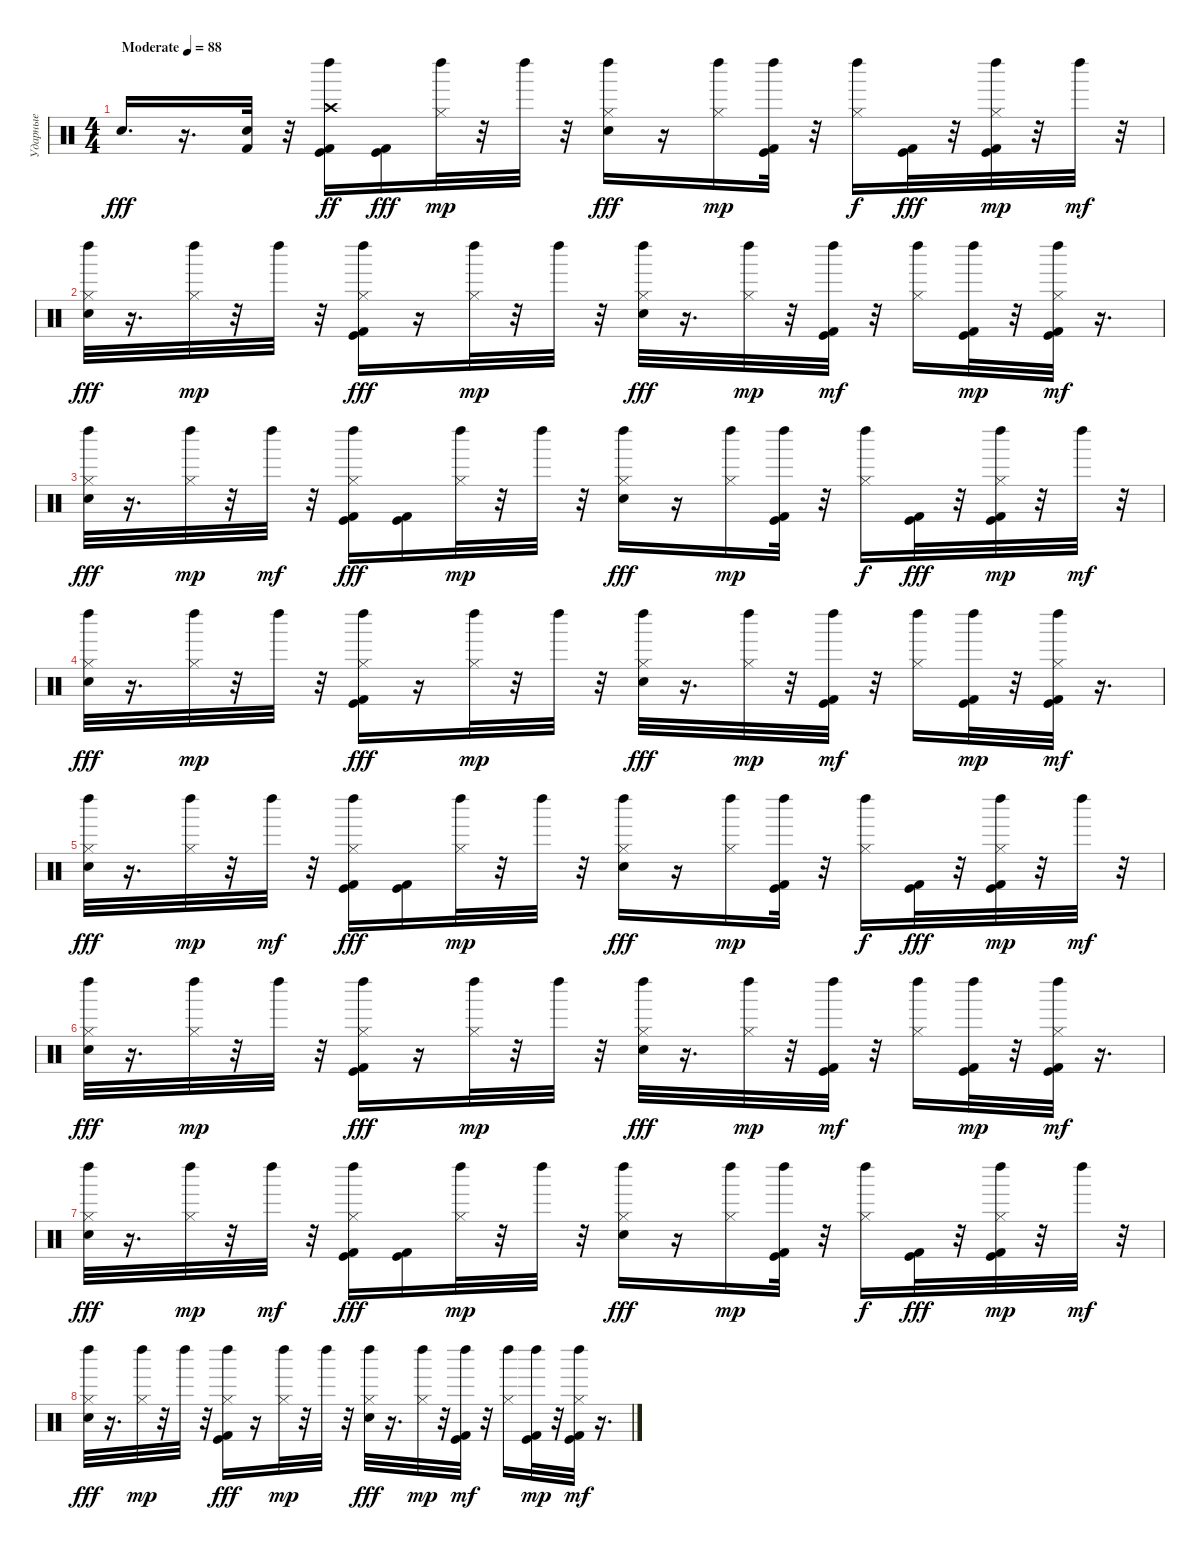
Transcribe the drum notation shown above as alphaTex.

\track ("Ударные" "Ударные") {instrument percussion}
\staff {score}
\articulation defaults
\ts (4 4)
\tempo (88 "Moderate")
\clef neutral
\ks c "Snare (hit) 2".16{d dy fff}
r.16{d} ("Kick (hit) 2" "Snare (hit) 2").32 r.32 ("Kick (hit)" "Kick (hit) 2" "Crash high (hit)" "Left Maraca (hit)").16{dy ff} ("Kick (hit)" "Kick (hit) 2").16{dy fff} ("Hi-Hat (closed)" "Left Maraca (hit)").32{dy mp} r.32 "Left Maraca (hit)".32 r.32 ("Snare (hit) 2" "Hi-Hat (closed)" "Left Maraca (hit)").16{dy fff} r.16 ("Hi-Hat (closed)" "Left Maraca (hit)").16{dy mp} ("Kick (hit)" "Kick (hit) 2" "Left Maraca (hit)").32 r.32 ("Hi-Hat (closed)" "Left Maraca (hit)").16{dy f} ("Kick (hit)" "Kick (hit) 2").32{dy fff} r.32 ("Kick (hit)" "Kick (hit) 2" "Hi-Hat (closed)" "Left Maraca (hit)").32{dy mp} r.32 "Left Maraca (hit)".32{dy mf} r.32 |
("Snare (hit) 2" "Hi-Hat (closed)" "Left Maraca (hit)").32{dy fff} r.16{d} ("Hi-Hat (closed)" "Left Maraca (hit)").32{dy mp} r.32 "Left Maraca (hit)".32 r.32 ("Kick (hit)" "Kick (hit) 2" "Hi-Hat (closed)" "Left Maraca (hit)").16{dy fff} r.16 ("Hi-Hat (closed)" "Left Maraca (hit)").32{dy mp} r.32 "Left Maraca (hit)".32 r.32 ("Snare (hit) 2" "Hi-Hat (closed)" "Left Maraca (hit)").32{dy fff} r.16{d} ("Hi-Hat (closed)" "Left Maraca (hit)").32{dy mp} r.32 ("Kick (hit)" "Kick (hit) 2" "Left Maraca (hit)").32{dy mf} r.32 ("Hi-Hat (closed)" "Left Maraca (hit)").16 ("Kick (hit)" "Kick (hit) 2" "Left Maraca (hit)").32{dy mp} r.32 ("Kick (hit)" "Kick (hit) 2" "Hi-Hat (closed)" "Left Maraca (hit)").32{dy mf} r.16{d} |
("Snare (hit) 2" "Hi-Hat (closed)" "Left Maraca (hit)").32{dy fff} r.16{d} ("Hi-Hat (closed)" "Left Maraca (hit)").32{dy mp} r.32 "Left Maraca (hit)".32{dy mf} r.32 ("Kick (hit)" "Kick (hit) 2" "Hi-Hat (closed)" "Left Maraca (hit)").16{dy fff} ("Kick (hit)" "Kick (hit) 2").16 ("Hi-Hat (closed)" "Left Maraca (hit)").32{dy mp} r.32 "Left Maraca (hit)".32 r.32 ("Snare (hit) 2" "Hi-Hat (closed)" "Left Maraca (hit)").16{dy fff} r.16 ("Hi-Hat (closed)" "Left Maraca (hit)").16{dy mp} ("Kick (hit)" "Kick (hit) 2" "Left Maraca (hit)").32 r.32 ("Hi-Hat (closed)" "Left Maraca (hit)").16{dy f} ("Kick (hit)" "Kick (hit) 2").32{dy fff} r.32 ("Kick (hit)" "Kick (hit) 2" "Hi-Hat (closed)" "Left Maraca (hit)").32{dy mp} r.32 "Left Maraca (hit)".32{dy mf} r.32 |
("Snare (hit) 2" "Hi-Hat (closed)" "Left Maraca (hit)").32{dy fff} r.16{d} ("Hi-Hat (closed)" "Left Maraca (hit)").32{dy mp} r.32 "Left Maraca (hit)".32 r.32 ("Kick (hit)" "Kick (hit) 2" "Hi-Hat (closed)" "Left Maraca (hit)").16{dy fff} r.16 ("Hi-Hat (closed)" "Left Maraca (hit)").32{dy mp} r.32 "Left Maraca (hit)".32 r.32 ("Snare (hit) 2" "Hi-Hat (closed)" "Left Maraca (hit)").32{dy fff} r.16{d} ("Hi-Hat (closed)" "Left Maraca (hit)").32{dy mp} r.32 ("Kick (hit)" "Kick (hit) 2" "Left Maraca (hit)").32{dy mf} r.32 ("Hi-Hat (closed)" "Left Maraca (hit)").16 ("Kick (hit)" "Kick (hit) 2" "Left Maraca (hit)").32{dy mp} r.32 ("Kick (hit)" "Kick (hit) 2" "Hi-Hat (closed)" "Left Maraca (hit)").32{dy mf} r.16{d} |
("Snare (hit) 2" "Hi-Hat (closed)" "Left Maraca (hit)").32{dy fff} r.16{d} ("Hi-Hat (closed)" "Left Maraca (hit)").32{dy mp} r.32 "Left Maraca (hit)".32{dy mf} r.32 ("Kick (hit)" "Kick (hit) 2" "Hi-Hat (closed)" "Left Maraca (hit)").16{dy fff} ("Kick (hit)" "Kick (hit) 2").16 ("Hi-Hat (closed)" "Left Maraca (hit)").32{dy mp} r.32 "Left Maraca (hit)".32 r.32 ("Snare (hit) 2" "Hi-Hat (closed)" "Left Maraca (hit)").16{dy fff} r.16 ("Hi-Hat (closed)" "Left Maraca (hit)").16{dy mp} ("Kick (hit)" "Kick (hit) 2" "Left Maraca (hit)").32 r.32 ("Hi-Hat (closed)" "Left Maraca (hit)").16{dy f} ("Kick (hit)" "Kick (hit) 2").32{dy fff} r.32 ("Kick (hit)" "Kick (hit) 2" "Hi-Hat (closed)" "Left Maraca (hit)").32{dy mp} r.32 "Left Maraca (hit)".32{dy mf} r.32 |
("Snare (hit) 2" "Hi-Hat (closed)" "Left Maraca (hit)").32{dy fff} r.16{d} ("Hi-Hat (closed)" "Left Maraca (hit)").32{dy mp} r.32 "Left Maraca (hit)".32 r.32 ("Kick (hit)" "Kick (hit) 2" "Hi-Hat (closed)" "Left Maraca (hit)").16{dy fff} r.16 ("Hi-Hat (closed)" "Left Maraca (hit)").32{dy mp} r.32 "Left Maraca (hit)".32 r.32 ("Snare (hit) 2" "Hi-Hat (closed)" "Left Maraca (hit)").32{dy fff} r.16{d} ("Hi-Hat (closed)" "Left Maraca (hit)").32{dy mp} r.32 ("Kick (hit)" "Kick (hit) 2" "Left Maraca (hit)").32{dy mf} r.32 ("Hi-Hat (closed)" "Left Maraca (hit)").16 ("Kick (hit)" "Kick (hit) 2" "Left Maraca (hit)").32{dy mp} r.32 ("Kick (hit)" "Kick (hit) 2" "Hi-Hat (closed)" "Left Maraca (hit)").32{dy mf} r.16{d} |
("Snare (hit) 2" "Hi-Hat (closed)" "Left Maraca (hit)").32{dy fff} r.16{d} ("Hi-Hat (closed)" "Left Maraca (hit)").32{dy mp} r.32 "Left Maraca (hit)".32{dy mf} r.32 ("Kick (hit)" "Kick (hit) 2" "Hi-Hat (closed)" "Left Maraca (hit)").16{dy fff} ("Kick (hit)" "Kick (hit) 2").16 ("Hi-Hat (closed)" "Left Maraca (hit)").32{dy mp} r.32 "Left Maraca (hit)".32 r.32 ("Snare (hit) 2" "Hi-Hat (closed)" "Left Maraca (hit)").16{dy fff} r.16 ("Hi-Hat (closed)" "Left Maraca (hit)").16{dy mp} ("Kick (hit)" "Kick (hit) 2" "Left Maraca (hit)").32 r.32 ("Hi-Hat (closed)" "Left Maraca (hit)").16{dy f} ("Kick (hit)" "Kick (hit) 2").32{dy fff} r.32 ("Kick (hit)" "Kick (hit) 2" "Hi-Hat (closed)" "Left Maraca (hit)").32{dy mp} r.32 "Left Maraca (hit)".32{dy mf} r.32 |
("Snare (hit) 2" "Hi-Hat (closed)" "Left Maraca (hit)").32{dy fff} r.16{d} ("Hi-Hat (closed)" "Left Maraca (hit)").32{dy mp} r.32 "Left Maraca (hit)".32 r.32 ("Kick (hit)" "Kick (hit) 2" "Hi-Hat (closed)" "Left Maraca (hit)").16{dy fff} r.16 ("Hi-Hat (closed)" "Left Maraca (hit)").32{dy mp} r.32 "Left Maraca (hit)".32 r.32 ("Snare (hit) 2" "Hi-Hat (closed)" "Left Maraca (hit)").32{dy fff} r.16{d} ("Hi-Hat (closed)" "Left Maraca (hit)").32{dy mp} r.32 ("Kick (hit)" "Kick (hit) 2" "Left Maraca (hit)").32{dy mf} r.32 ("Hi-Hat (closed)" "Left Maraca (hit)").16 ("Kick (hit)" "Kick (hit) 2" "Left Maraca (hit)").32{dy mp} r.32 ("Kick (hit)" "Kick (hit) 2" "Hi-Hat (closed)" "Left Maraca (hit)").32{dy mf} r.16{d}
